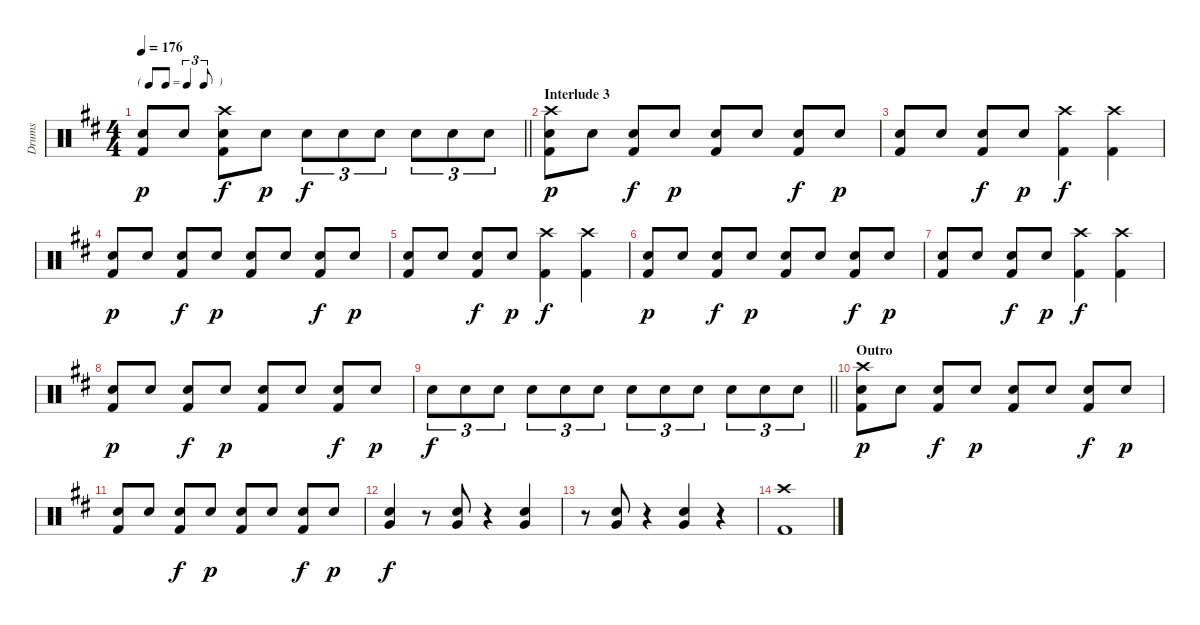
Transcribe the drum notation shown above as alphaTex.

\track ("Drums" "Drums") {instrument percussion}
\staff {score}
\articulation defaults
\ts (4 4)
\tf triplet8th
\tempo 176
\clef neutral
\barLineRight lightlight
\ks d
("Snare (hit) 2" "Kick (hit) 2").8{dy p} "Snare (hit) 2".8 ("Crash high (hit)" "Snare (hit) 2" "Kick (hit) 2").8{dy f} "Snare (hit) 2".8{dy p} "Snare (hit) 2".8{tu (3 2) dy f} "Snare (hit) 2".8{tu (3 2)} "Snare (hit) 2".8{tu (3 2)} "Snare (hit) 2".8{tu (3 2)} "Snare (hit) 2".8{tu (3 2)} "Snare (hit) 2".8{tu (3 2)} |
\section ("" "Interlude 3")
("Crash high (hit)" "Snare (hit) 2" "Kick (hit) 2").8{dy p} "Snare (hit) 2".8 ("Snare (hit) 2" "Kick (hit) 2").8{dy f} "Snare (hit) 2".8{dy p} ("Snare (hit) 2" "Kick (hit) 2").8 "Snare (hit) 2".8 ("Snare (hit) 2" "Kick (hit) 2").8{dy f} "Snare (hit) 2".8{dy p} |
("Snare (hit) 2" "Kick (hit) 2").8 "Snare (hit) 2".8 ("Snare (hit) 2" "Kick (hit) 2").8{dy f} "Snare (hit) 2".8{dy p} ("Crash high (hit)" "Kick (hit) 2").4{dy f} ("Crash high (hit)" "Kick (hit) 2").4 |
("Snare (hit) 2" "Kick (hit) 2").8{dy p} "Snare (hit) 2".8 ("Snare (hit) 2" "Kick (hit) 2").8{dy f} "Snare (hit) 2".8{dy p} ("Snare (hit) 2" "Kick (hit) 2").8 "Snare (hit) 2".8 ("Snare (hit) 2" "Kick (hit) 2").8{dy f} "Snare (hit) 2".8{dy p} |
("Snare (hit) 2" "Kick (hit) 2").8 "Snare (hit) 2".8 ("Snare (hit) 2" "Kick (hit) 2").8{dy f} "Snare (hit) 2".8{dy p} ("Crash high (hit)" "Kick (hit) 2").4{dy f} ("Crash high (hit)" "Kick (hit) 2").4 |
("Snare (hit) 2" "Kick (hit) 2").8{dy p} "Snare (hit) 2".8 ("Snare (hit) 2" "Kick (hit) 2").8{dy f} "Snare (hit) 2".8{dy p} ("Snare (hit) 2" "Kick (hit) 2").8 "Snare (hit) 2".8 ("Snare (hit) 2" "Kick (hit) 2").8{dy f} "Snare (hit) 2".8{dy p} |
("Snare (hit) 2" "Kick (hit) 2").8 "Snare (hit) 2".8 ("Snare (hit) 2" "Kick (hit) 2").8{dy f} "Snare (hit) 2".8{dy p} ("Crash high (hit)" "Kick (hit) 2").4{dy f} ("Crash high (hit)" "Kick (hit) 2").4 |
("Snare (hit) 2" "Kick (hit) 2").8{dy p} "Snare (hit) 2".8 ("Snare (hit) 2" "Kick (hit) 2").8{dy f} "Snare (hit) 2".8{dy p} ("Snare (hit) 2" "Kick (hit) 2").8 "Snare (hit) 2".8 ("Snare (hit) 2" "Kick (hit) 2").8{dy f} "Snare (hit) 2".8{dy p} |
\barLineRight lightlight "Snare (hit) 2".8{tu (3 2) dy f} "Snare (hit) 2".8{tu (3 2)} "Snare (hit) 2".8{tu (3 2)} "Snare (hit) 2".8{tu (3 2)} "Snare (hit) 2".8{tu (3 2)} "Snare (hit) 2".8{tu (3 2)} "Snare (hit) 2".8{tu (3 2)} "Snare (hit) 2".8{tu (3 2)} "Snare (hit) 2".8{tu (3 2)} "Snare (hit) 2".8{tu (3 2)} "Snare (hit) 2".8{tu (3 2)} "Snare (hit) 2".8{tu (3 2)}
|
\section ("" "Outro")
("Crash high (hit)" "Snare (hit) 2" "Kick (hit) 2").8{dy p} "Snare (hit) 2".8 ("Snare (hit) 2" "Kick (hit) 2").8{dy f} "Snare (hit) 2".8{dy p} ("Snare (hit) 2" "Kick (hit) 2").8 "Snare (hit) 2".8 ("Snare (hit) 2" "Kick (hit) 2").8{dy f} "Snare (hit) 2".8{dy p} |
("Snare (hit) 2" "Kick (hit) 2").8 "Snare (hit) 2".8 ("Snare (hit) 2" "Kick (hit) 2").8{dy f} "Snare (hit) 2".8{dy p} ("Snare (hit) 2" "Kick (hit) 2").8 "Snare (hit) 2".8 ("Snare (hit) 2" "Kick (hit) 2").8{dy f} "Snare (hit) 2".8{dy p} |
("Snare (hit) 2" "Very Low Tom (hit)").4{dy f} r.8 ("Snare (hit) 2" "Very Low Tom (hit)").8 r.4 ("Snare (hit) 2" "Very Low Tom (hit)").4 |
r.8 ("Snare (hit) 2" "Very Low Tom (hit)").8 r.4 ("Snare (hit) 2" "Very Low Tom (hit)").4 r.4 |
("Crash high (hit)" "Kick (hit) 2").1
